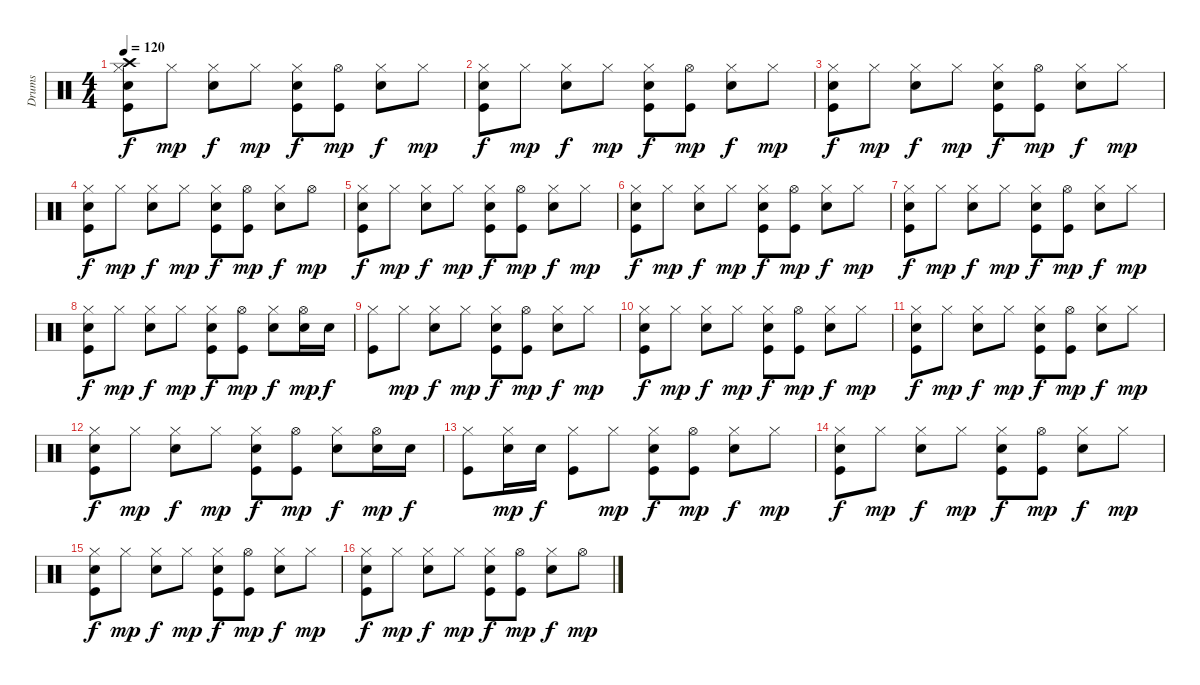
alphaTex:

\track ("Drums" "Drums") {instrument percussion}
\staff {score}
\articulation defaults
\ts (4 4)
\tempo 120
\clef neutral
\ks c
("Hi-Hat (closed)" "Crash high (hit)" "Electric Snare (hit)" "Kick (hit)").8{dy f} "Hi-Hat (closed)".8{dy mp} ("Hi-Hat (closed)" "Electric Snare (hit)").8{dy f} "Hi-Hat (closed)".8{dy mp} ("Hi-Hat (closed)" "Electric Snare (hit)" "Kick (hit)").8{dy f} ("Hi-Hat (open)" "Kick (hit)").8{dy mp} ("Hi-Hat (closed)" "Electric Snare (hit)").8{dy f} "Hi-Hat (closed)".8{dy mp} |
("Hi-Hat (closed)" "Electric Snare (hit)" "Kick (hit)").8{dy f} "Hi-Hat (closed)".8{dy mp} ("Hi-Hat (closed)" "Electric Snare (hit)").8{dy f} "Hi-Hat (closed)".8{dy mp} ("Hi-Hat (closed)" "Electric Snare (hit)" "Kick (hit)").8{dy f} ("Hi-Hat (open)" "Kick (hit)").8{dy mp} ("Hi-Hat (closed)" "Electric Snare (hit)").8{dy f} "Hi-Hat (closed)".8{dy mp} |
("Hi-Hat (closed)" "Electric Snare (hit)" "Kick (hit)").8{dy f} "Hi-Hat (closed)".8{dy mp} ("Hi-Hat (closed)" "Electric Snare (hit)").8{dy f} "Hi-Hat (closed)".8{dy mp} ("Hi-Hat (closed)" "Electric Snare (hit)" "Kick (hit)").8{dy f} ("Hi-Hat (open)" "Kick (hit)").8{dy mp} ("Hi-Hat (closed)" "Electric Snare (hit)").8{dy f} "Hi-Hat (closed)".8{dy mp} |
("Hi-Hat (closed)" "Electric Snare (hit)" "Kick (hit)").8{dy f} "Hi-Hat (closed)".8{dy mp} ("Hi-Hat (closed)" "Electric Snare (hit)").8{dy f} "Hi-Hat (closed)".8{dy mp} ("Hi-Hat (closed)" "Electric Snare (hit)" "Kick (hit)").8{dy f} ("Hi-Hat (open)" "Kick (hit)").8{dy mp} ("Hi-Hat (closed)" "Electric Snare (hit)").8{dy f} "Hi-Hat (open)".8{dy mp} |
("Hi-Hat (closed)" "Electric Snare (hit)" "Kick (hit)").8{dy f} "Hi-Hat (closed)".8{dy mp} ("Hi-Hat (closed)" "Electric Snare (hit)").8{dy f} "Hi-Hat (closed)".8{dy mp} ("Hi-Hat (closed)" "Electric Snare (hit)" "Kick (hit)").8{dy f} ("Hi-Hat (open)" "Kick (hit)").8{dy mp} ("Hi-Hat (closed)" "Electric Snare (hit)").8{dy f} "Hi-Hat (closed)".8{dy mp} |
("Hi-Hat (closed)" "Electric Snare (hit)" "Kick (hit)").8{dy f} "Hi-Hat (closed)".8{dy mp} ("Hi-Hat (closed)" "Electric Snare (hit)").8{dy f} "Hi-Hat (closed)".8{dy mp} ("Hi-Hat (closed)" "Electric Snare (hit)" "Kick (hit)").8{dy f} ("Hi-Hat (open)" "Kick (hit)").8{dy mp} ("Hi-Hat (closed)" "Electric Snare (hit)").8{dy f} "Hi-Hat (closed)".8{dy mp} |
("Hi-Hat (closed)" "Electric Snare (hit)" "Kick (hit)").8{dy f} "Hi-Hat (closed)".8{dy mp} ("Hi-Hat (closed)" "Electric Snare (hit)").8{dy f} "Hi-Hat (closed)".8{dy mp} ("Hi-Hat (closed)" "Electric Snare (hit)" "Kick (hit)").8{dy f} ("Hi-Hat (open)" "Kick (hit)").8{dy mp} ("Hi-Hat (closed)" "Electric Snare (hit)").8{dy f} "Hi-Hat (closed)".8{dy mp} |
("Hi-Hat (closed)" "Electric Snare (hit)" "Kick (hit)").8{dy f} "Hi-Hat (closed)".8{dy mp} ("Hi-Hat (closed)" "Electric Snare (hit)").8{dy f} "Hi-Hat (closed)".8{dy mp} ("Hi-Hat (closed)" "Electric Snare (hit)" "Kick (hit)").8{dy f} ("Hi-Hat (open)" "Kick (hit)").8{dy mp} ("Hi-Hat (closed)" "Electric Snare (hit)").8{dy f} ("Hi-Hat (open)" "Electric Snare (hit)").16{dy mp} "Electric Snare (hit)".16{dy f} |
("Hi-Hat (closed)" "Kick (hit)").8 "Hi-Hat (closed)".8{dy mp} ("Hi-Hat (closed)" "Electric Snare (hit)").8{dy f} "Hi-Hat (closed)".8{dy mp} ("Hi-Hat (closed)" "Electric Snare (hit)" "Kick (hit)").8{dy f} ("Hi-Hat (open)" "Kick (hit)").8{dy mp} ("Hi-Hat (closed)" "Electric Snare (hit)").8{dy f} "Hi-Hat (closed)".8{dy mp} |
("Hi-Hat (closed)" "Electric Snare (hit)" "Kick (hit)").8{dy f} "Hi-Hat (closed)".8{dy mp} ("Hi-Hat (closed)" "Electric Snare (hit)").8{dy f} "Hi-Hat (closed)".8{dy mp} ("Hi-Hat (closed)" "Electric Snare (hit)" "Kick (hit)").8{dy f} ("Hi-Hat (open)" "Kick (hit)").8{dy mp} ("Hi-Hat (closed)" "Electric Snare (hit)").8{dy f} "Hi-Hat (closed)".8{dy mp} |
("Hi-Hat (closed)" "Electric Snare (hit)" "Kick (hit)").8{dy f} "Hi-Hat (closed)".8{dy mp} ("Hi-Hat (closed)" "Electric Snare (hit)").8{dy f} "Hi-Hat (closed)".8{dy mp} ("Hi-Hat (closed)" "Electric Snare (hit)" "Kick (hit)").8{dy f} ("Hi-Hat (open)" "Kick (hit)").8{dy mp} ("Hi-Hat (closed)" "Electric Snare (hit)").8{dy f} "Hi-Hat (closed)".8{dy mp} |
("Hi-Hat (closed)" "Electric Snare (hit)" "Kick (hit)").8{dy f} "Hi-Hat (closed)".8{dy mp} ("Hi-Hat (closed)" "Electric Snare (hit)").8{dy f} "Hi-Hat (closed)".8{dy mp} ("Hi-Hat (closed)" "Electric Snare (hit)" "Kick (hit)").8{dy f} ("Hi-Hat (open)" "Kick (hit)").8{dy mp} ("Hi-Hat (closed)" "Electric Snare (hit)").8{dy f} ("Hi-Hat (open)" "Electric Snare (hit)").16{dy mp} "Electric Snare (hit)".16{dy f} |
("Hi-Hat (closed)" "Kick (hit)").8 ("Hi-Hat (closed)" "Electric Snare (hit)").16{dy mp} "Electric Snare (hit)".16{dy f} ("Hi-Hat (closed)" "Kick (hit)").8 "Hi-Hat (closed)".8{dy mp} ("Hi-Hat (closed)" "Electric Snare (hit)" "Kick (hit)").8{dy f} ("Hi-Hat (open)" "Kick (hit)").8{dy mp} ("Hi-Hat (closed)" "Electric Snare (hit)").8{dy f} "Hi-Hat (closed)".8{dy mp} |
("Hi-Hat (closed)" "Electric Snare (hit)" "Kick (hit)").8{dy f} "Hi-Hat (closed)".8{dy mp} ("Hi-Hat (closed)" "Electric Snare (hit)").8{dy f} "Hi-Hat (closed)".8{dy mp} ("Hi-Hat (closed)" "Electric Snare (hit)" "Kick (hit)").8{dy f} ("Hi-Hat (open)" "Kick (hit)").8{dy mp} ("Hi-Hat (closed)" "Electric Snare (hit)").8{dy f} "Hi-Hat (closed)".8{dy mp} |
("Hi-Hat (closed)" "Electric Snare (hit)" "Kick (hit)").8{dy f} "Hi-Hat (closed)".8{dy mp} ("Hi-Hat (closed)" "Electric Snare (hit)").8{dy f} "Hi-Hat (closed)".8{dy mp} ("Hi-Hat (closed)" "Electric Snare (hit)" "Kick (hit)").8{dy f} ("Hi-Hat (open)" "Kick (hit)").8{dy mp} ("Hi-Hat (closed)" "Electric Snare (hit)").8{dy f} "Hi-Hat (closed)".8{dy mp} |
("Hi-Hat (closed)" "Electric Snare (hit)" "Kick (hit)").8{dy f} "Hi-Hat (closed)".8{dy mp} ("Hi-Hat (closed)" "Electric Snare (hit)").8{dy f} "Hi-Hat (closed)".8{dy mp} ("Hi-Hat (closed)" "Electric Snare (hit)" "Kick (hit)").8{dy f} ("Hi-Hat (open)" "Kick (hit)").8{dy mp} ("Hi-Hat (closed)" "Electric Snare (hit)").8{dy f} "Hi-Hat (open)".8{dy mp}
